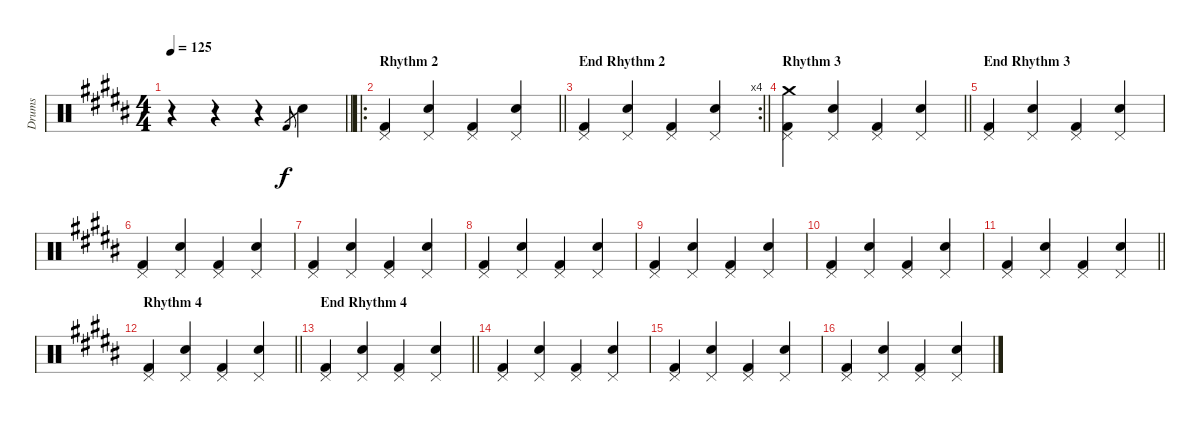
\track ("Drums" "Drums") {instrument percussion}
\staff {score}
\articulation defaults
\ts (4 4)
\tempo 125
\clef neutral
\barLineRight lightlight
\ks b
r.4{dy f} r.4 r.4 "Kick (hit) 2".8{gr} "Snare (hit) 2".4 |
\ro
\section ("" "Rhythm 2")
\barLineRight lightlight
("Kick (hit) 2" "Pedal Hi-Hat (hit)").4 ("Snare (hit) 2" "Pedal Hi-Hat (hit)").4 ("Kick (hit) 2" "Pedal Hi-Hat (hit)").4 ("Snare (hit) 2" "Pedal Hi-Hat (hit)").4 |
\rc 4
\section ("" "End Rhythm 2")
\barLineRight lightlight
("Kick (hit) 2" "Pedal Hi-Hat (hit)").4 ("Snare (hit) 2" "Pedal Hi-Hat (hit)").4 ("Kick (hit) 2" "Pedal Hi-Hat (hit)").4 ("Snare (hit) 2" "Pedal Hi-Hat (hit)").4 |
\section ("" "Rhythm 3")
\barLineRight lightlight
("Kick (hit) 2" "Pedal Hi-Hat (hit)" "Crash medium (hit)").4 ("Snare (hit) 2" "Pedal Hi-Hat (hit)").4 ("Kick (hit) 2" "Pedal Hi-Hat (hit)").4 ("Snare (hit) 2" "Pedal Hi-Hat (hit)").4 |
\section ("" "End Rhythm 3")
("Kick (hit) 2" "Pedal Hi-Hat (hit)").4 ("Snare (hit) 2" "Pedal Hi-Hat (hit)").4 ("Kick (hit) 2" "Pedal Hi-Hat (hit)").4 ("Snare (hit) 2" "Pedal Hi-Hat (hit)").4 |
("Kick (hit) 2" "Pedal Hi-Hat (hit)").4 ("Snare (hit) 2" "Pedal Hi-Hat (hit)").4 ("Kick (hit) 2" "Pedal Hi-Hat (hit)").4 ("Snare (hit) 2" "Pedal Hi-Hat (hit)").4 |
("Kick (hit) 2" "Pedal Hi-Hat (hit)").4 ("Snare (hit) 2" "Pedal Hi-Hat (hit)").4 ("Kick (hit) 2" "Pedal Hi-Hat (hit)").4 ("Snare (hit) 2" "Pedal Hi-Hat (hit)").4 |
("Kick (hit) 2" "Pedal Hi-Hat (hit)").4 ("Snare (hit) 2" "Pedal Hi-Hat (hit)").4 ("Kick (hit) 2" "Pedal Hi-Hat (hit)").4 ("Snare (hit) 2" "Pedal Hi-Hat (hit)").4 |
("Kick (hit) 2" "Pedal Hi-Hat (hit)").4 ("Snare (hit) 2" "Pedal Hi-Hat (hit)").4 ("Kick (hit) 2" "Pedal Hi-Hat (hit)").4 ("Snare (hit) 2" "Pedal Hi-Hat (hit)").4 |
("Kick (hit) 2" "Pedal Hi-Hat (hit)").4 ("Snare (hit) 2" "Pedal Hi-Hat (hit)").4 ("Kick (hit) 2" "Pedal Hi-Hat (hit)").4 ("Snare (hit) 2" "Pedal Hi-Hat (hit)").4 |
\barLineRight lightlight
("Kick (hit) 2" "Pedal Hi-Hat (hit)").4 ("Snare (hit) 2" "Pedal Hi-Hat (hit)").4 ("Kick (hit) 2" "Pedal Hi-Hat (hit)").4 ("Snare (hit) 2" "Pedal Hi-Hat (hit)").4 |
\section ("" "Rhythm 4")
\barLineRight lightlight
("Kick (hit) 2" "Pedal Hi-Hat (hit)").4 ("Snare (hit) 2" "Pedal Hi-Hat (hit)").4 ("Kick (hit) 2" "Pedal Hi-Hat (hit)").4 ("Snare (hit) 2" "Pedal Hi-Hat (hit)").4 |
\section ("" "End Rhythm 4")
\barLineRight lightlight
("Kick (hit) 2" "Pedal Hi-Hat (hit)").4 ("Snare (hit) 2" "Pedal Hi-Hat (hit)").4 ("Kick (hit) 2" "Pedal Hi-Hat (hit)").4 ("Snare (hit) 2" "Pedal Hi-Hat (hit)").4 |
("Kick (hit) 2" "Pedal Hi-Hat (hit)").4 ("Snare (hit) 2" "Pedal Hi-Hat (hit)").4 ("Kick (hit) 2" "Pedal Hi-Hat (hit)").4 ("Snare (hit) 2" "Pedal Hi-Hat (hit)").4 |
("Kick (hit) 2" "Pedal Hi-Hat (hit)").4 ("Snare (hit) 2" "Pedal Hi-Hat (hit)").4 ("Kick (hit) 2" "Pedal Hi-Hat (hit)").4 ("Snare (hit) 2" "Pedal Hi-Hat (hit)").4 |
("Kick (hit) 2" "Pedal Hi-Hat (hit)").4 ("Snare (hit) 2" "Pedal Hi-Hat (hit)").4 ("Kick (hit) 2" "Pedal Hi-Hat (hit)").4 ("Snare (hit) 2" "Pedal Hi-Hat (hit)").4
